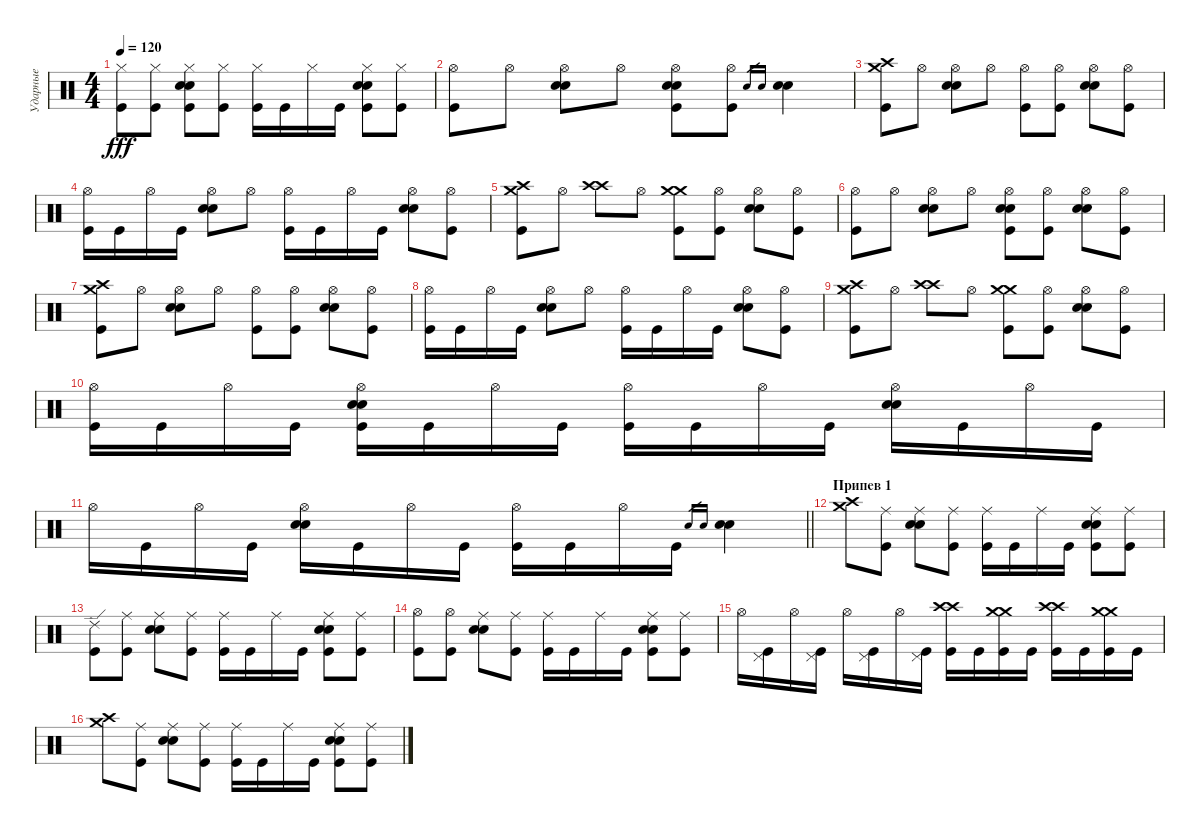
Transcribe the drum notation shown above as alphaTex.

\track ("Ударные" "Ударные") {instrument percussion}
\staff {score}
\articulation defaults
\ts (4 4)
\tempo 120
\clef neutral
\ks c
("Hi-Hat (closed)" "Kick (hit)").8{dy fff} ("Hi-Hat (closed)" "Kick (hit)").8 ("Snare (hit) 2" "Electric Snare (hit)" "Kick (hit)" "Hi-Hat (closed)").8 ("Kick (hit)" "Hi-Hat (closed)").8 ("Kick (hit)" "Hi-Hat (closed)").16 "Kick (hit)".16 "Hi-Hat (closed)".16 "Kick (hit)".16 ("Snare (hit) 2" "Electric Snare (hit)" "Kick (hit)" "Hi-Hat (closed)").8 ("Kick (hit)" "Hi-Hat (closed)").8 |
("Hi-Hat (open)" "Kick (hit)").8 "Hi-Hat (open)".8 ("Hi-Hat (open)" "Electric Snare (hit)" "Snare (hit) 2").8 "Hi-Hat (open)".8 ("Hi-Hat (open)" "Snare (hit) 2" "Electric Snare (hit)" "Kick (hit)").8 ("Hi-Hat (open)" "Kick (hit)").8 "Electric Snare (hit)".16{gr} "Snare (hit) 2".16{gr} ("Electric Snare (hit)" "Snare (hit) 2").4 |
("Crash high (hit)" "Crash medium (hit)" "Kick (hit)").8 "Hi-Hat (open)".8 ("Hi-Hat (open)" "Electric Snare (hit)" "Snare (hit) 2").8 "Hi-Hat (open)".8 ("Hi-Hat (open)" "Kick (hit)").8 ("Hi-Hat (open)" "Kick (hit)").8 ("Hi-Hat (open)" "Electric Snare (hit)" "Snare (hit) 2").8 ("Hi-Hat (open)" "Kick (hit)").8 |
("Hi-Hat (open)" "Kick (hit)").16 "Kick (hit)".16 "Hi-Hat (open)".16 "Kick (hit)".16 ("Hi-Hat (open)" "Electric Snare (hit)" "Snare (hit) 2").8 "Hi-Hat (open)".8 ("Hi-Hat (open)" "Kick (hit)").16 "Kick (hit)".16 "Hi-Hat (open)".16 "Kick (hit)".16 ("Hi-Hat (open)" "Electric Snare (hit)" "Snare (hit) 2").8 ("Hi-Hat (open)" "Kick (hit)").8 |
("Crash high (hit)" "Crash medium (hit)" "Kick (hit)").8 "Hi-Hat (open)".8 ("Crash high (hit)" "Crash high (hit)").8 "Hi-Hat (open)".8 ("Crash medium (hit)" "Crash medium (hit)" "Kick (hit)").8 ("Hi-Hat (open)" "Kick (hit)").8 ("Hi-Hat (open)" "Electric Snare (hit)" "Snare (hit) 2").8 ("Hi-Hat (open)" "Kick (hit)").8 |
("Hi-Hat (open)" "Kick (hit)").8 "Hi-Hat (open)".8 ("Hi-Hat (open)" "Electric Snare (hit)" "Snare (hit) 2").8 "Hi-Hat (open)".8 ("Hi-Hat (open)" "Snare (hit) 2" "Electric Snare (hit)" "Kick (hit)").8 ("Hi-Hat (open)" "Kick (hit)").8 ("Hi-Hat (open)" "Electric Snare (hit)" "Snare (hit) 2").8 ("Hi-Hat (open)" "Kick (hit)").8 |
("Crash high (hit)" "Crash medium (hit)" "Kick (hit)").8 "Hi-Hat (open)".8 ("Hi-Hat (open)" "Electric Snare (hit)" "Snare (hit) 2").8 "Hi-Hat (open)".8 ("Hi-Hat (open)" "Kick (hit)").8 ("Hi-Hat (open)" "Kick (hit)").8 ("Hi-Hat (open)" "Electric Snare (hit)" "Snare (hit) 2").8 ("Hi-Hat (open)" "Kick (hit)").8 |
("Hi-Hat (open)" "Kick (hit)").16 "Kick (hit)".16 "Hi-Hat (open)".16 "Kick (hit)".16 ("Hi-Hat (open)" "Electric Snare (hit)" "Snare (hit) 2").8 "Hi-Hat (open)".8 ("Hi-Hat (open)" "Kick (hit)").16 "Kick (hit)".16 "Hi-Hat (open)".16 "Kick (hit)".16 ("Hi-Hat (open)" "Electric Snare (hit)" "Snare (hit) 2").8 ("Hi-Hat (open)" "Kick (hit)").8 |
("Crash high (hit)" "Crash medium (hit)" "Kick (hit)").8 "Hi-Hat (open)".8 ("Crash high (hit)" "Crash high (hit)").8 "Hi-Hat (open)".8 ("Crash medium (hit)" "Crash medium (hit)" "Kick (hit)").8 ("Hi-Hat (open)" "Kick (hit)").8 ("Hi-Hat (open)" "Electric Snare (hit)" "Snare (hit) 2").8 ("Hi-Hat (open)" "Kick (hit)").8 |
("Hi-Hat (open)" "Kick (hit)").16 "Kick (hit)".16 "Hi-Hat (open)".16 "Kick (hit)".16 ("Hi-Hat (open)" "Electric Snare (hit)" "Snare (hit) 2" "Kick (hit)").16 "Kick (hit)".16 "Hi-Hat (open)".16 "Kick (hit)".16 ("Hi-Hat (open)" "Kick (hit)").16 "Kick (hit)".16 "Hi-Hat (open)".16 "Kick (hit)".16 ("Hi-Hat (open)" "Snare (hit) 2" "Electric Snare (hit)").16 "Kick (hit)".16 "Hi-Hat (open)".16 "Kick (hit)".16 |
\barLineRight lightlight "Hi-Hat (open)".16 "Kick (hit)".16 "Hi-Hat (open)".16 "Kick (hit)".16
("Hi-Hat (open)" "Electric Snare (hit)" "Snare (hit) 2").16 "Kick (hit)".16 "Hi-Hat (open)".16 "Kick (hit)".16 ("Hi-Hat (open)" "Kick (hit)").16 "Kick (hit)".16 "Hi-Hat (open)".16 "Kick (hit)".16 "Snare (hit) 2".16{gr} "Snare (hit) 2".16{gr} ("Snare (hit) 2" "Snare (hit) 2").4 |
\section ("" "Припев 1")
("Crash high (hit)" "Crash medium (hit)").8 ("Ride (middle)" "Kick (hit)").8 ("Ride (middle)" "Snare (hit) 2" "Electric Snare (hit)").8 ("Ride (middle)" "Kick (hit)").8 ("Ride (middle)" "Kick (hit)").16 "Kick (hit)".16 "Ride (middle)".16 "Kick (hit)".16 ("Electric Snare (hit)" "Snare (hit) 2" "Ride (middle)" "Kick (hit)").8 ("Ride (middle)" "Kick (hit)").8 |
("Ride (edge) 2" "Kick (hit)").8 ("Ride (middle)" "Kick (hit)").8 ("Ride (middle)" "Snare (hit) 2" "Electric Snare (hit)").8 ("Ride (middle)" "Kick (hit)").8 ("Ride (middle)" "Kick (hit)").16 "Kick (hit)".16 "Ride (middle)".16 "Kick (hit)".16 ("Electric Snare (hit)" "Snare (hit) 2" "Ride (middle)" "Kick (hit)").8 ("Ride (middle)" "Kick (hit)").8 |
("Hi-Hat (open)" "Kick (hit)").8 ("Hi-Hat (open)" "Kick (hit)").8 ("Ride (middle)" "Snare (hit) 2" "Electric Snare (hit)").8 ("Ride (middle)" "Kick (hit)").8 ("Ride (middle)" "Kick (hit)").16 "Kick (hit)".16 "Ride (middle)".16 "Kick (hit)".16 ("Electric Snare (hit)" "Snare (hit) 2" "Ride (middle)" "Kick (hit)").8 ("Ride (middle)" "Kick (hit)").8 |
"Hi-Hat (open)".16 ("Kick (hit)" "Pedal Hi-Hat (hit)").16 "Hi-Hat (open)".16 ("Kick (hit)" "Pedal Hi-Hat (hit)").16 "Hi-Hat (open)".16 ("Pedal Hi-Hat (hit)" "Kick (hit)").16 "Hi-Hat (open)".16 ("Pedal Hi-Hat (hit)" "Kick (hit)").16 ("Kick (hit)" "Crash high (hit)" "Crash high (hit)").16 "Kick (hit)".16 ("Kick (hit)" "Crash medium (hit)" "Crash medium (hit)").16 "Kick (hit)".16 ("Kick (hit)" "Crash high (hit)" "Crash high (hit)").16 "Kick (hit)".16 ("Kick (hit)" "Crash medium (hit)" "Crash medium (hit)").16 "Kick (hit)".16 |
("Crash high (hit)" "Crash medium (hit)").8 ("Ride (middle)" "Kick (hit)").8 ("Ride (middle)" "Snare (hit) 2" "Electric Snare (hit)").8 ("Ride (middle)" "Kick (hit)").8 ("Ride (middle)" "Kick (hit)").16 "Kick (hit)".16 "Ride (middle)".16 "Kick (hit)".16 ("Electric Snare (hit)" "Snare (hit) 2" "Ride (middle)" "Kick (hit)").8 ("Ride (middle)" "Kick (hit)").8
